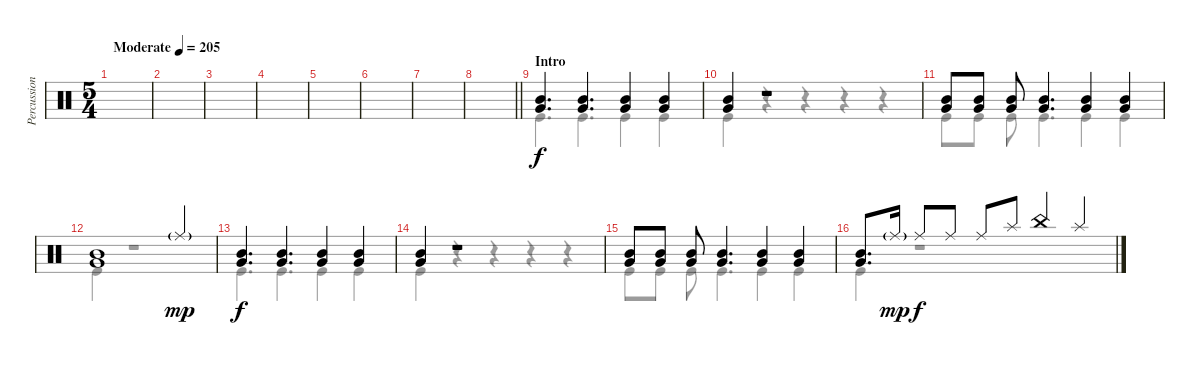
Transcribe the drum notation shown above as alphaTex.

\track ("Percussion" "Percussion") {instrument percussion}
\staff {score}
\articulation defaults
\voice
\ts (5 4)
\tempo (205 "Moderate")
\clef neutral
\ks c
|
|
|
|
|
|
|
\barLineRight lightlight
|
\section ("" "Intro")
("Mid Tom (hit)" "Very Low Tom (hit)").4{d} ("Mid Tom (hit)" "Very Low Tom (hit)").4{d} ("Mid Tom (hit)" "Very Low Tom (hit)").4 ("Mid Tom (hit)" "Very Low Tom (hit)").4 |
("Mid Tom (hit)" "Very Low Tom (hit)").4 r.1 |
("Mid Tom (hit)" "Very Low Tom (hit)").8 ("Mid Tom (hit)" "Very Low Tom (hit)").8 ("Mid Tom (hit)" "Very Low Tom (hit)").8 ("Mid Tom (hit)" "Very Low Tom (hit)").4{d} ("Mid Tom (hit)" "Very Low Tom (hit)").4 ("Mid Tom (hit)" "Very Low Tom (hit)").4 |
("Mid Tom (hit)" "Very Low Tom (hit)").1 "Ride (middle)"{g}.4{dy mp} |
("Mid Tom (hit)" "Very Low Tom (hit)").4{d dy f} ("Mid Tom (hit)" "Very Low Tom (hit)").4{d} ("Mid Tom (hit)" "Very Low Tom (hit)").4 ("Mid Tom (hit)" "Very Low Tom (hit)").4 |
("Mid Tom (hit)" "Very Low Tom (hit)").4 r.1 |
("Mid Tom (hit)" "Very Low Tom (hit)").8 ("Mid Tom (hit)" "Very Low Tom (hit)").8 ("Mid Tom (hit)" "Very Low Tom (hit)").8 ("Mid Tom (hit)" "Very Low Tom (hit)").4{d} ("Mid Tom (hit)" "Very Low Tom (hit)").4 ("Mid Tom (hit)" "Very Low Tom (hit)").4 |
("Mid Tom (hit)" "Very Low Tom (hit)").8{d} "Ride (middle)"{g}.16{dy mp} "Ride (middle)".8{dy f} "Ride (middle)".8 "Ride (middle)".8 "Splash (hit)".8 "China (hit)".4 "Splash (hit)".4
\voice
\clef neutral
\ottava regular
\simile none
\ks c
|
|
|
|
|
|
|
\barLineRight lightlight
|
"Kick (hit)".4{d} "Kick (hit)".4{d} "Kick (hit)".4 "Kick (hit)".4 |
"Kick (hit)".4 r.4 r.4 r.4 r.4 |
"Kick (hit)".8 "Kick (hit)".8 "Kick (hit)".8 "Kick (hit)".4{d} "Kick (hit)".4 "Kick (hit)".4 |
"Kick (hit)".4 r.1 |
"Kick (hit)".4{d} "Kick (hit)".4{d} "Kick (hit)".4 "Kick (hit)".4 |
"Kick (hit)".4 r.4 r.4 r.4 r.4 |
"Kick (hit)".8 "Kick (hit)".8 "Kick (hit)".8 "Kick (hit)".4{d} "Kick (hit)".4 "Kick (hit)".4 |
"Kick (hit)".4 r.1
